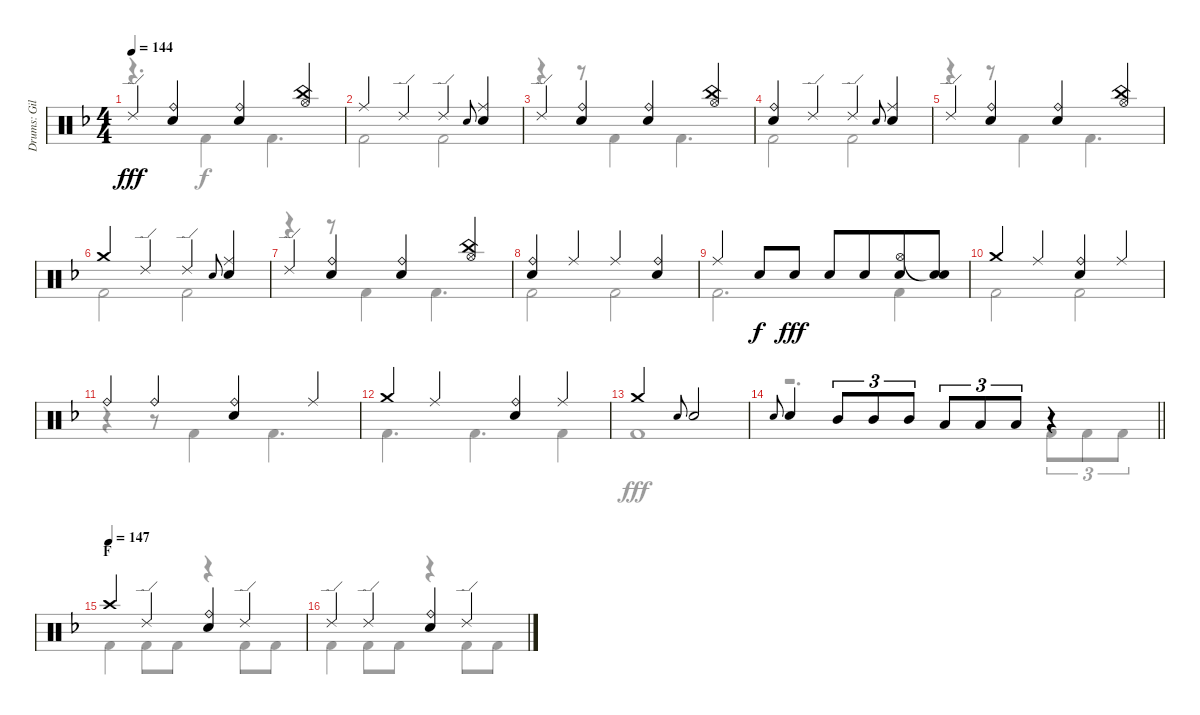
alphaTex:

\track ("Drums: Gil" "Drums: Gil") {instrument percussion}
\staff {score}
\articulation defaults
\voice
\ts (4 4)
\tempo 144
\clef neutral
\ks f "Ride (edge) 2".4{dy fff}
("Ride (bell)" "Snare (hit) 2").4 ("Ride (bell)" "Snare (hit) 2").4 ("China (hit)" "Hi-Hat (open)").4 |
"Ride (middle)".4 "Ride (edge) 2".4 "Ride (edge) 2".4 "Electric Snare (hit)".8{gr onbeat} ("Ride (middle)" "Snare (hit) 2").4 |
"Ride (edge) 2".4 ("Ride (bell)" "Snare (hit) 2").4 ("Ride (bell)" "Snare (hit) 2").4 ("China (hit)" "Hi-Hat (open)").4 |
("Ride (bell)" "Snare (hit) 2").4 "Ride (edge) 2".4 "Ride (edge) 2".4 "Electric Snare (hit)".8{gr onbeat} ("Ride (middle)" "Snare (hit) 2").4 |
"Ride (edge) 2".4 ("Ride (bell)" "Snare (hit) 2").4 ("Ride (bell)" "Snare (hit) 2").4 ("China (hit)" "Hi-Hat (open)").4 |
"Crash medium (hit)".4 "Ride (edge) 2".4 "Ride (edge) 2".4 "Electric Snare (hit)".8{gr onbeat} ("Ride (middle)" "Snare (hit) 2").4 |
"Ride (edge) 2".4 ("Ride (bell)" "Snare (hit) 2").4 ("Ride (bell)" "Snare (hit) 2").4 ("China (hit)" "Hi-Hat (open)").4 |
("Ride (bell)" "Snare (hit) 2").4 "Ride (middle)".4 "Ride (middle)".4 ("Ride (bell)" "Snare (hit) 2").4 |
"Ride (middle)".4 "Snare (hit) 2".8{dy f} "Snare (hit) 2".8{dy fff} "Snare (hit) 2".8 "Snare (hit) 2".8{beam merge} ("Hi-Hat (open)" "Snare (hit) 2").8 ("Snare (hit)"{t} "Snare (hit) 2").8 |
"Crash medium (hit)".4 "Ride (middle)".4 ("Ride (bell)" "Snare (hit) 2").4 "Ride (middle)".4 |
"Ride (bell)".4 "Ride (bell)".4 ("Ride (bell)" "Snare (hit) 2").4 "Ride (middle)".4 |
"Crash medium (hit)".4 "Ride (middle)".4 ("Ride (bell)" "Snare (hit) 2").4 "Ride (middle)".4 |
"Crash medium (hit)".2 "Electric Snare (hit)".8{gr onbeat} "Snare (hit) 2".2 |
\barLineRight lightlight "Electric Snare (hit)".8{gr onbeat} "Snare (hit) 2".4 "Mid Tom (hit)".8{tu (3 2)} "Mid Tom (hit)".8{tu (3 2)} "Mid Tom (hit)".8{tu (3 2)} "Low Tom (hit)".8{tu (3 2)} "Low Tom (hit)".8{tu (3 2)} "Low Tom (hit)".8{tu (3 2)}
r.4 |
\section ("" "F")
\tempo (147)
"Crash high (hit)".4 "Ride (edge) 2".4 ("Ride (bell)" "Snare (hit) 2").4 "Ride (edge) 2".4 |
"Ride (edge) 2".4 "Ride (edge) 2".4 ("Ride (bell)" "Snare (hit) 2").4 "Ride (edge) 2".4
\voice
\clef neutral
\ottava regular
\simile none
\ks f
r.4{d dy f} "Kick (hit) 2".4 "Kick (hit) 2".4{d} |
"Kick (hit) 2".2 "Kick (hit) 2".2 |
r.4 r.8 "Kick (hit) 2".4 "Kick (hit) 2".4{d} |
"Kick (hit) 2".2 "Kick (hit) 2".2 |
r.4 r.8 "Kick (hit) 2".4 "Kick (hit) 2".4{d} |
"Kick (hit) 2".2 "Kick (hit) 2".2 |
r.4 r.8 "Kick (hit) 2".4 "Kick (hit) 2".4{d} |
"Kick (hit) 2".2 "Kick (hit) 2".2 |
"Kick (hit) 2".2{d} "Kick (hit) 2".4 |
"Kick (hit) 2".2 "Kick (hit) 2".2 |
r.4 r.8 "Kick (hit) 2".4 "Kick (hit) 2".4{d} |
"Kick (hit) 2".4{d} "Kick (hit) 2".4{d} "Kick (hit) 2".4 |
"Kick (hit) 2".1{dy fff} |
\barLineRight lightlight
r.2{d} "Kick (hit) 2".8{tu (3 2)} "Kick (hit) 2".8{tu (3 2)} "Kick (hit) 2".8{tu (3 2)} |
"Kick (hit) 2".4 "Kick (hit) 2".8 "Kick (hit) 2".8 r.4 "Kick (hit) 2".8 "Kick (hit) 2".8 |
"Kick (hit) 2".4 "Kick (hit) 2".8 "Kick (hit) 2".8 r.4 "Kick (hit) 2".8 "Kick (hit) 2".8
